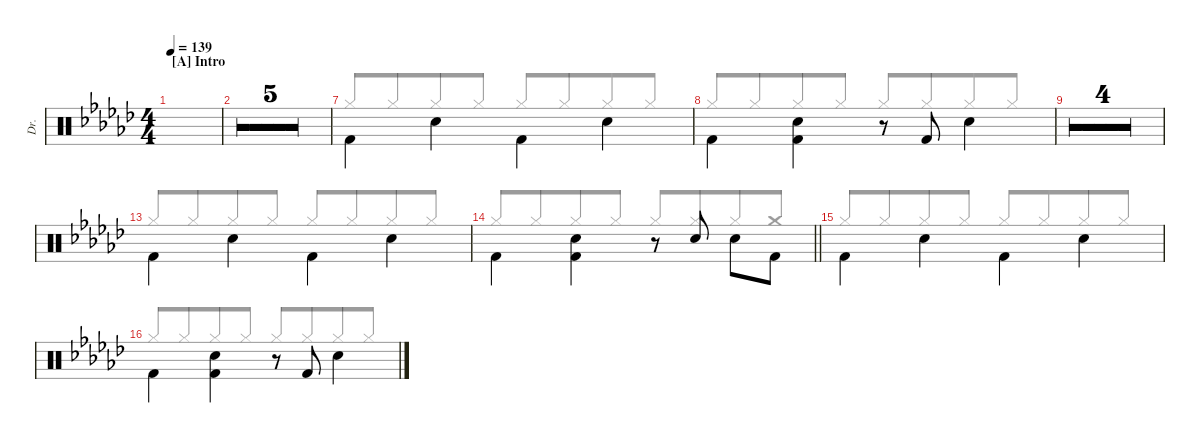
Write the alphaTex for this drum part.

\defaultSystemsLayout 4
\hideDynamics
\bracketExtendMode groupsimilarinstruments
\otherSystemsTrackNameOrientation horizontal
\track ("Drums" "Dr.") {multiBarRest instrument percussion}
\staff {score}
\articulation defaults
\voice
\ts (4 4)
\beaming (8 2 2 2 2)
\section ("A" "Intro")
\tempo 139
\clef neutral
\ks gb
|
|
|
|
|
\barLineRight lightlight
|
"Kick (hit) 2"{acc forcenatural}.4{beam Down} "Snare (hit) 2"{acc forcenatural}.4{beam Down} "Kick (hit) 2"{acc forcenatural}.4{beam Down} "Snare (hit) 2"{acc forcenatural}.4{beam Down} |
"Kick (hit) 2"{acc forcenatural}.4{beam Down} ("Snare (hit) 2"{acc forcenatural} "Kick (hit) 2"{acc forcenatural}).4{beam Down} r.8{beam Up} "Kick (hit) 2"{acc forcenatural}.8{beam Down} "Snare (hit) 2"{acc forcenatural}.4{beam Down} |
\simile firstofdouble
|
\simile secondofdouble
|
\simile firstofdouble
|
\simile secondofdouble
|
\simile none "Kick (hit) 2"{acc forcenatural}.4{beam Down} "Snare (hit) 2"{acc forcenatural}.4{beam Down} "Kick (hit) 2"{acc forcenatural}.4{beam Down} "Snare (hit) 2"{acc forcenatural}.4{beam Down}
|
\barLineRight lightlight "Kick (hit) 2"{acc forcenatural}.4{beam Down}
("Snare (hit) 2"{acc forcenatural} "Kick (hit) 2"{acc forcenatural}).4{beam Down} r.8{beam Up} "Snare (hit) 2"{acc forcenatural}.8{beam Down} "Snare (hit) 2"{acc forcenatural}.8{beam Down} "Kick (hit) 2"{acc forcenatural}.8{beam Down} |
"Kick (hit) 2"{acc forcenatural}.4{beam Down} "Snare (hit) 2"{acc forcenatural}.4{beam Down} "Kick (hit) 2"{acc forcenatural}.4{beam Down} "Snare (hit) 2"{acc forcenatural}.4{beam Down} |
"Kick (hit) 2"{acc forcenatural}.4{beam Down} ("Snare (hit) 2"{acc forcenatural} "Kick (hit) 2"{acc forcenatural}).4{beam Down} r.8{beam Up} "Kick (hit) 2"{acc forcenatural}.8{beam Down} "Snare (hit) 2"{acc forcenatural}.4{beam Down}
\voice
\clef neutral
\ottava regular
\simile none
\ks gb
|
|
|
|
|
\barLineRight lightlight
|
"Hi-Hat (closed)"{acc forcenatural}.8{beam Up} "Hi-Hat (closed)"{acc forcenatural}.8{beam Up beam merge} "Hi-Hat (closed)"{acc forcenatural}.8{beam Up beam merge} "Hi-Hat (closed)"{acc forcenatural}.8{beam Up} "Hi-Hat (closed)"{acc forcenatural}.8{beam Up} "Hi-Hat (closed)"{acc forcenatural}.8{beam Up beam merge} "Hi-Hat (closed)"{acc forcenatural}.8{beam Up} "Hi-Hat (closed)"{acc forcenatural}.8{beam Up} |
"Hi-Hat (closed)"{acc forcenatural}.8{beam Up} "Hi-Hat (closed)"{acc forcenatural}.8{beam Up beam merge} "Hi-Hat (closed)"{acc forcenatural}.8{beam Up} "Hi-Hat (closed)"{acc forcenatural}.8{beam Up} "Hi-Hat (closed)"{acc forcenatural}.8{beam Up} "Hi-Hat (closed)"{acc forcenatural}.8{beam Up beam merge} "Hi-Hat (closed)"{acc forcenatural}.8{beam Up} "Hi-Hat (closed)"{acc forcenatural}.8{beam Up} |
\simile firstofdouble
|
\simile secondofdouble
|
\simile firstofdouble
|
\simile secondofdouble
|
\simile none "Hi-Hat (closed)"{acc forcenatural}.8{beam Up} "Hi-Hat (closed)"{acc forcenatural}.8{beam Up beam merge} "Hi-Hat (closed)"{acc forcenatural}.8{beam Up beam merge} "Hi-Hat (closed)"{acc forcenatural}.8{beam Up} "Hi-Hat (closed)"{acc forcenatural}.8{beam Up} "Hi-Hat (closed)"{acc forcenatural}.8{beam Up beam merge} "Hi-Hat (closed)"{acc forcenatural}.8{beam Up} "Hi-Hat (closed)"{acc forcenatural}.8{beam Up}
|
\barLineRight lightlight "Hi-Hat (closed)"{acc forcenatural}.8{beam Up beam merge} "Hi-Hat (closed)"{acc forcenatural}.8{beam Up beam merge} "Hi-Hat (closed)"{acc forcenatural}.8{beam Up} "Hi-Hat (closed)"{acc forcenatural}.8{beam Up} "Hi-Hat (closed)"{acc forcenatural}.8{beam Up} "Hi-Hat (closed)"{acc forcenatural}.8{beam Up beam merge} "Hi-Hat (closed)"{acc forcenatural}.8{beam Up} "Crash medium (hit)"{acc forcenatural}.8{beam Up}
|
"Hi-Hat (closed)"{acc forcenatural}.8{beam Up} "Hi-Hat (closed)"{acc forcenatural}.8{beam Up beam merge} "Hi-Hat (closed)"{acc forcenatural}.8{beam Up} "Hi-Hat (closed)"{acc forcenatural}.8{beam Up} "Hi-Hat (closed)"{acc forcenatural}.8{beam Up} "Hi-Hat (closed)"{acc forcenatural}.8{beam Up beam merge} "Hi-Hat (closed)"{acc forcenatural}.8{beam Up} "Hi-Hat (closed)"{acc forcenatural}.8{beam Up} |
"Hi-Hat (closed)"{acc forcenatural}.8{beam Up} "Hi-Hat (closed)"{acc forcenatural}.8{beam Up beam merge} "Hi-Hat (closed)"{acc forcenatural}.8{beam Up} "Hi-Hat (closed)"{acc forcenatural}.8{beam Up} "Hi-Hat (closed)"{acc forcenatural}.8{beam Up beam merge} "Hi-Hat (closed)"{acc forcenatural}.8{beam Up beam merge} "Hi-Hat (closed)"{acc forcenatural}.8{beam Up beam merge} "Hi-Hat (closed)"{acc forcenatural}.8{beam Up}
